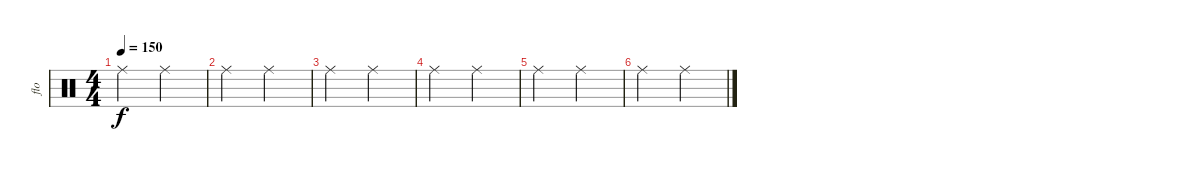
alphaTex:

\track ("flo" "flo") {instrument percussion}
\staff {score}
\articulation defaults
\ts (4 4)
\tempo 150
\clef neutral
\ks c "Ride (middle)".2{dy f} "Ride (middle)".2
|
"Ride (middle)".2 "Ride (middle)".2 |
"Ride (middle)".2 "Ride (middle)".2 |
"Ride (middle)".2 "Ride (middle)".2 |
"Ride (middle)".2 "Ride (middle)".2 |
"Ride (middle)".2 "Ride (middle)".2
